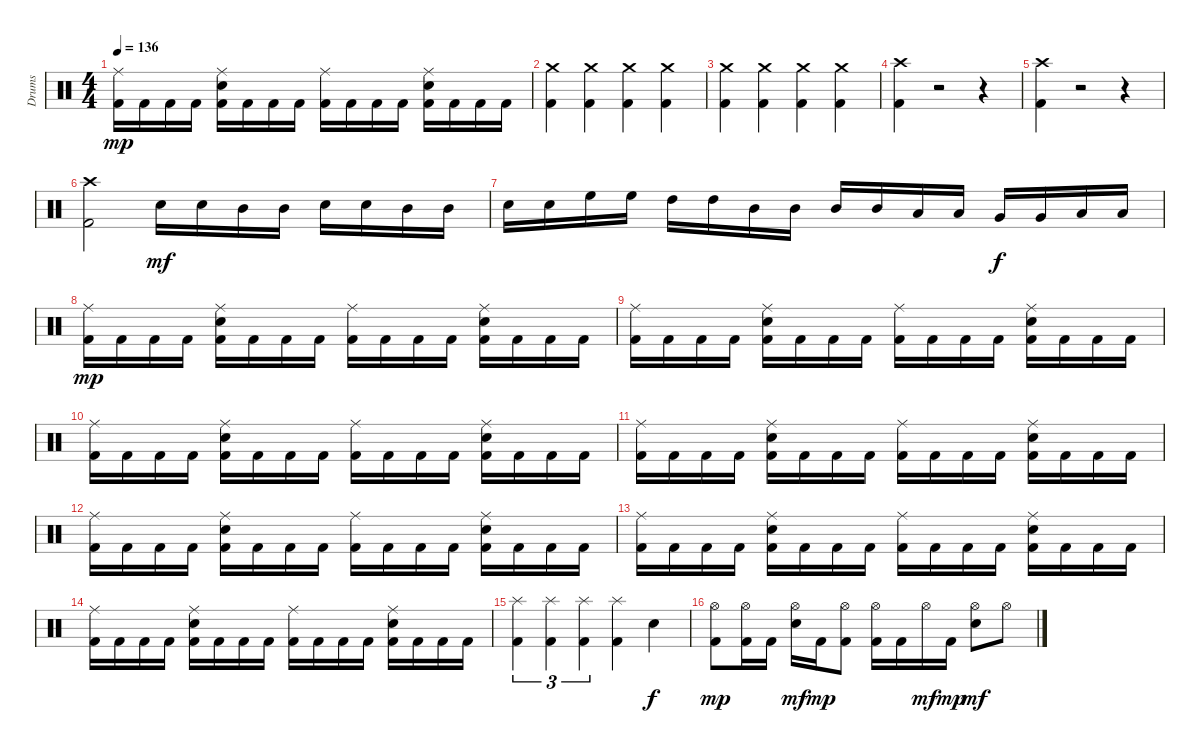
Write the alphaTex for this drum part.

\track ("Drums" "Drums") {instrument percussion}
\staff {score}
\articulation defaults
\ts (4 4)
\tempo 136
\clef neutral
\ks c
("Ride (middle)" "Kick (hit) 2").16{dy mp} "Kick (hit) 2".16 "Kick (hit) 2".16 "Kick (hit) 2".16 ("Ride (middle)" "Snare (hit) 2" "Kick (hit) 2").16 "Kick (hit) 2".16 "Kick (hit) 2".16 "Kick (hit) 2".16 ("Ride (middle)" "Kick (hit) 2").16 "Kick (hit) 2".16 "Kick (hit) 2".16 "Kick (hit) 2".16 ("Ride (middle)" "Snare (hit) 2" "Kick (hit) 2").16 "Kick (hit) 2".16 "Kick (hit) 2".16 "Kick (hit) 2".16 |
("Crash medium (hit)" "Kick (hit) 2").4 ("Crash medium (hit)" "Kick (hit) 2").4 ("Crash medium (hit)" "Kick (hit) 2").4 ("Crash medium (hit)" "Kick (hit) 2").4 |
("Crash medium (hit)" "Kick (hit) 2").4 ("Crash medium (hit)" "Kick (hit) 2").4 ("Crash medium (hit)" "Kick (hit) 2").4 ("Crash medium (hit)" "Kick (hit) 2").4 |
("Crash high (hit)" "Kick (hit) 2").4 r.2 r.4 |
("Crash high (hit)" "Kick (hit) 2").4 r.2 r.4 |
("Crash high (hit)" "Kick (hit) 2").2 "Electric Snare (hit)".16{dy mf} "Electric Snare (hit)".16 "Mid Tom (hit)".16 "Mid Tom (hit)".16 "Electric Snare (hit)".16 "Electric Snare (hit)".16 "Mid Tom (hit)".16 "Mid Tom (hit)".16 |
"Electric Snare (hit)".16 "Electric Snare (hit)".16 "High Floor Tom (hit)".16 "High Floor Tom (hit)".16 "High Tom (hit)".16 "High Tom (hit)".16 "Mid Tom (hit)".16 "Mid Tom (hit)".16 "Mid Tom (hit)".16 "Mid Tom (hit)".16 "Low Tom (hit)".16 "Low Tom (hit)".16 "Very Low Tom (hit)".16{dy f} "Very Low Tom (hit)".16 "Low Floor Tom (hit)".16 "Low Floor Tom (hit)".16 |
("Ride (middle)" "Kick (hit) 2").16{dy mp} "Kick (hit) 2".16 "Kick (hit) 2".16 "Kick (hit) 2".16 ("Ride (middle)" "Snare (hit) 2" "Kick (hit) 2").16 "Kick (hit) 2".16 "Kick (hit) 2".16 "Kick (hit) 2".16 ("Ride (middle)" "Kick (hit) 2").16 "Kick (hit) 2".16 "Kick (hit) 2".16 "Kick (hit) 2".16 ("Ride (middle)" "Snare (hit) 2" "Kick (hit) 2").16 "Kick (hit) 2".16 "Kick (hit) 2".16 "Kick (hit) 2".16 |
("Ride (middle)" "Kick (hit) 2").16 "Kick (hit) 2".16 "Kick (hit) 2".16 "Kick (hit) 2".16 ("Ride (middle)" "Snare (hit) 2" "Kick (hit) 2").16 "Kick (hit) 2".16 "Kick (hit) 2".16 "Kick (hit) 2".16 ("Ride (middle)" "Kick (hit) 2").16 "Kick (hit) 2".16 "Kick (hit) 2".16 "Kick (hit) 2".16 ("Ride (middle)" "Snare (hit) 2" "Kick (hit) 2").16 "Kick (hit) 2".16 "Kick (hit) 2".16 "Kick (hit) 2".16 |
("Ride (middle)" "Kick (hit) 2").16 "Kick (hit) 2".16 "Kick (hit) 2".16 "Kick (hit) 2".16 ("Ride (middle)" "Snare (hit) 2" "Kick (hit) 2").16 "Kick (hit) 2".16 "Kick (hit) 2".16 "Kick (hit) 2".16 ("Ride (middle)" "Kick (hit) 2").16 "Kick (hit) 2".16 "Kick (hit) 2".16 "Kick (hit) 2".16 ("Ride (middle)" "Snare (hit) 2" "Kick (hit) 2").16 "Kick (hit) 2".16 "Kick (hit) 2".16 "Kick (hit) 2".16 |
("Ride (middle)" "Kick (hit) 2").16 "Kick (hit) 2".16 "Kick (hit) 2".16 "Kick (hit) 2".16 ("Ride (middle)" "Snare (hit) 2" "Kick (hit) 2").16 "Kick (hit) 2".16 "Kick (hit) 2".16 "Kick (hit) 2".16 ("Ride (middle)" "Kick (hit) 2").16 "Kick (hit) 2".16 "Kick (hit) 2".16 "Kick (hit) 2".16 ("Ride (middle)" "Snare (hit) 2" "Kick (hit) 2").16 "Kick (hit) 2".16 "Kick (hit) 2".16 "Kick (hit) 2".16 |
("Ride (middle)" "Kick (hit) 2").16 "Kick (hit) 2".16 "Kick (hit) 2".16 "Kick (hit) 2".16 ("Ride (middle)" "Snare (hit) 2" "Kick (hit) 2").16 "Kick (hit) 2".16 "Kick (hit) 2".16 "Kick (hit) 2".16 ("Ride (middle)" "Kick (hit) 2").16 "Kick (hit) 2".16 "Kick (hit) 2".16 "Kick (hit) 2".16 ("Ride (middle)" "Snare (hit) 2" "Kick (hit) 2").16 "Kick (hit) 2".16 "Kick (hit) 2".16 "Kick (hit) 2".16 |
("Ride (middle)" "Kick (hit) 2").16 "Kick (hit) 2".16 "Kick (hit) 2".16 "Kick (hit) 2".16 ("Ride (middle)" "Snare (hit) 2" "Kick (hit) 2").16 "Kick (hit) 2".16 "Kick (hit) 2".16 "Kick (hit) 2".16 ("Ride (middle)" "Kick (hit) 2").16 "Kick (hit) 2".16 "Kick (hit) 2".16 "Kick (hit) 2".16 ("Ride (middle)" "Snare (hit) 2" "Kick (hit) 2").16 "Kick (hit) 2".16 "Kick (hit) 2".16 "Kick (hit) 2".16 |
("Ride (middle)" "Kick (hit) 2").16 "Kick (hit) 2".16 "Kick (hit) 2".16 "Kick (hit) 2".16 ("Ride (middle)" "Snare (hit) 2" "Kick (hit) 2").16 "Kick (hit) 2".16 "Kick (hit) 2".16 "Kick (hit) 2".16 ("Ride (middle)" "Kick (hit) 2").16 "Kick (hit) 2".16 "Kick (hit) 2".16 "Kick (hit) 2".16 ("Ride (middle)" "Snare (hit) 2" "Kick (hit) 2").16 "Kick (hit) 2".16 "Kick (hit) 2".16 "Kick (hit) 2".16 |
("Splash (hit)" "Kick (hit) 2").4{tu (3 2)} ("Splash (hit)" "Kick (hit) 2").4{tu (3 2)} ("Splash (hit)" "Kick (hit) 2").4{tu (3 2)} ("Splash (hit)" "Kick (hit) 2").4 "Electric Snare (hit)".4{dy f} |
("Hi-Hat (open)" "Kick (hit) 2").8{dy mp} ("Hi-Hat (open)" "Kick (hit) 2").16 "Kick (hit) 2".16 ("Hi-Hat (open)" "Electric Snare (hit)").16{dy mf} "Kick (hit) 2".16{dy mp} ("Hi-Hat (open)" "Kick (hit) 2").8 ("Hi-Hat (open)" "Kick (hit) 2").16 "Kick (hit) 2".16 "Hi-Hat (open)".16{dy mf} "Kick (hit) 2".16{dy mp} ("Hi-Hat (open)" "Electric Snare (hit)").8{dy mf} "Hi-Hat (open)".8
